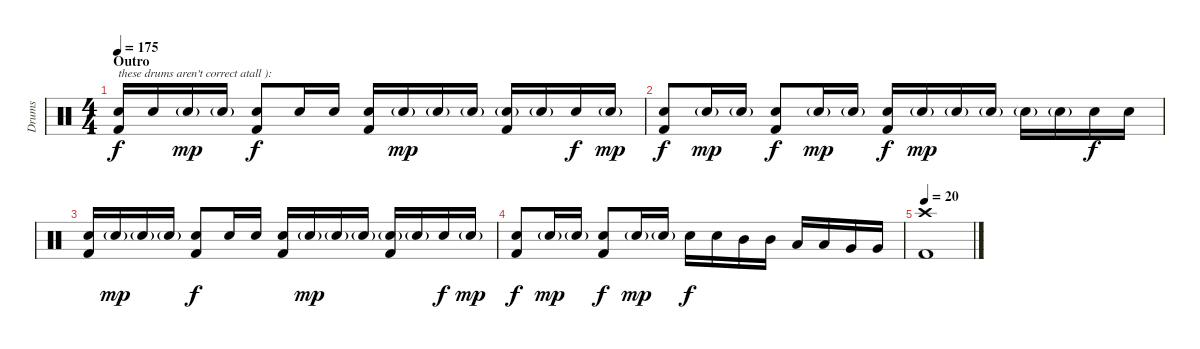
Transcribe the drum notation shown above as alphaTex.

\track ("Drums" "Drums") {instrument percussion}
\staff {score}
\articulation defaults
\ts (4 4)
\section ("" "Outro")
\tempo 175
\clef neutral
\ks c
("Electric Snare (hit)" "Kick (hit) 2").16{txt "these drums aren't correct atall ):" dy f} "Electric Snare (hit)".16 "Electric Snare (hit)"{g}.16{dy mp} "Electric Snare (hit)"{g}.16 ("Electric Snare (hit)" "Kick (hit) 2").8{dy f} "Electric Snare (hit)".16 "Electric Snare (hit)".16 ("Electric Snare (hit)" "Kick (hit) 2").16 "Electric Snare (hit)"{g}.16{dy mp} "Electric Snare (hit)"{g}.16 "Electric Snare (hit)"{g}.16 ("Electric Snare (hit)"{g} "Kick (hit) 2").16 "Electric Snare (hit)"{g}.16 "Electric Snare (hit)".16{dy f} "Electric Snare (hit)"{g}.16{dy mp} |
("Electric Snare (hit)" "Kick (hit) 2").8{dy f} "Electric Snare (hit)"{g}.16{dy mp} "Electric Snare (hit)"{g}.16 ("Electric Snare (hit)" "Kick (hit) 2").8{dy f} "Electric Snare (hit)"{g}.16{dy mp} "Electric Snare (hit)"{g}.16 ("Electric Snare (hit)" "Kick (hit) 2").16{dy f} "Electric Snare (hit)"{g}.16{dy mp} "Electric Snare (hit)"{g}.16 "Electric Snare (hit)"{g}.16 "Electric Snare (hit)"{g}.16 "Electric Snare (hit)"{g}.16 "Electric Snare (hit)".16{dy f} "Electric Snare (hit)".16 |
("Electric Snare (hit)" "Kick (hit) 2").16 "Electric Snare (hit)"{g}.16{dy mp} "Electric Snare (hit)"{g}.16 "Electric Snare (hit)"{g}.16 ("Electric Snare (hit)" "Kick (hit) 2").8{dy f} "Electric Snare (hit)".16 "Electric Snare (hit)".16 ("Electric Snare (hit)" "Kick (hit) 2").16 "Electric Snare (hit)"{g}.16{dy mp} "Electric Snare (hit)"{g}.16 "Electric Snare (hit)"{g}.16 ("Electric Snare (hit)"{g} "Kick (hit) 2").16 "Electric Snare (hit)"{g}.16 "Electric Snare (hit)".16{dy f} "Electric Snare (hit)"{g}.16{dy mp} |
("Electric Snare (hit)" "Kick (hit) 2").8{dy f} "Electric Snare (hit)"{g}.16{dy mp} "Electric Snare (hit)"{g}.16 ("Electric Snare (hit)" "Kick (hit) 2").8{dy f} "Electric Snare (hit)"{g}.16{dy mp} "Electric Snare (hit)"{g}.16 "Electric Snare (hit)".16{dy f} "Electric Snare (hit)".16 "Mid Tom (hit)".16 "Mid Tom (hit)".16 "Low Tom (hit)".16 "Low Tom (hit)".16 "Very Low Tom (hit)".16 "Very Low Tom (hit)".16 |
\tempo 20
("Crash high (hit)" "Kick (hit) 2").1{volume 0}
